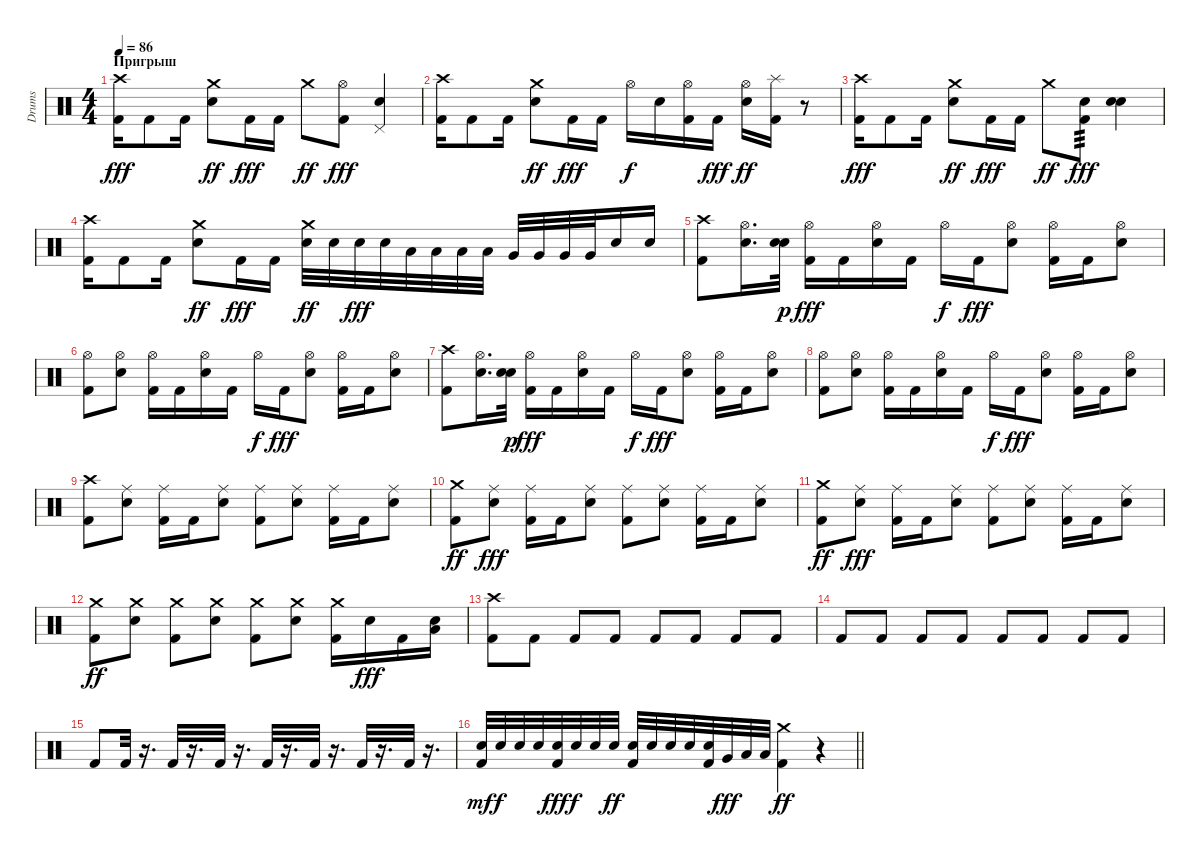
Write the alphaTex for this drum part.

\track ("Drums" "Drums") {instrument percussion}
\staff {score}
\articulation defaults
\ts (4 4)
\section ("" "Пригрыш")
\tempo 86
\clef neutral
\ks c
("Kick (hit) 2" "Crash high (hit)").16{dy fff} "Kick (hit) 2".8 "Kick (hit) 2".16 ("Electric Snare (hit)" "Crash medium (hit)").8{dy ff} "Kick (hit) 2".16{dy fff} "Kick (hit) 2".16 "Crash medium (hit)".8{dy ff} ("Kick (hit) 2" "Hi-Hat (open)").8{dy fff} ("Electric Snare (hit)" "Pedal Hi-Hat (hit)").4 |
("Kick (hit) 2" "Crash high (hit)").16 "Kick (hit) 2".8 "Kick (hit) 2".16 ("Electric Snare (hit)" "Crash medium (hit)").8{dy ff} "Kick (hit) 2".16{dy fff} "Kick (hit) 2".16 "Hi-Hat (open)".16{dy f} "Electric Snare (hit)".16 ("Kick (hit) 2" "Hi-Hat (open)").16 "Kick (hit) 2".16{dy fff} ("Electric Snare (hit)" "Hi-Hat (open)").16{dy ff} ("Kick (hit) 2" "Splash (hit)").16 r.8 |
("Kick (hit) 2" "Crash high (hit)").16{dy fff} "Kick (hit) 2".8 "Kick (hit) 2".16 ("Electric Snare (hit)" "Crash medium (hit)").8{dy ff} "Kick (hit) 2".16{dy fff} "Kick (hit) 2".16 "Crash medium (hit)".8{dy ff} ("Kick (hit) 2" "Electric Snare (hit)").8{tp 3 dy fff} ("Electric Snare (hit)" "Snare (hit) 2").4 |
("Kick (hit) 2" "Crash high (hit)").16 "Kick (hit) 2".8 "Kick (hit) 2".16 ("Electric Snare (hit)" "Crash medium (hit)").8{dy ff} "Kick (hit) 2".16{dy fff} "Kick (hit) 2".16 ("Electric Snare (hit)" "Crash medium (hit)").32{dy ff} "Electric Snare (hit)".32 "Electric Snare (hit)".32{dy fff} "Electric Snare (hit)".32 "Low Tom (hit)".32 "Low Tom (hit)".32 "Low Tom (hit)".32 "Low Tom (hit)".32 "Very Low Tom (hit)".32 "Very Low Tom (hit)".32 "Very Low Tom (hit)".32 "Very Low Tom (hit)".32 "Electric Snare (hit)".16 "Electric Snare (hit)".16 |
("Kick (hit) 2" "Crash high (hit)").8 ("Electric Snare (hit)" "Hi-Hat (open)").16{d} ("Electric Snare (hit)" "Electric Snare (hit)").32{dy p} ("Kick (hit) 2" "Hi-Hat (open)").16{dy fff} "Kick (hit) 2".16 ("Electric Snare (hit)" "Hi-Hat (open)").16 "Kick (hit) 2".16 "Hi-Hat (open)".16{dy f} "Kick (hit) 2".16{dy fff} ("Electric Snare (hit)" "Hi-Hat (open)").8 ("Kick (hit) 2" "Hi-Hat (open)").16 "Kick (hit) 2".16 ("Electric Snare (hit)" "Hi-Hat (open)").8 |
("Kick (hit) 2" "Hi-Hat (open)").8 ("Electric Snare (hit)" "Hi-Hat (open)").8 ("Kick (hit) 2" "Hi-Hat (open)").16 "Kick (hit) 2".16 ("Electric Snare (hit)" "Hi-Hat (open)").16 "Kick (hit) 2".16 "Hi-Hat (open)".16{dy f} "Kick (hit) 2".16{dy fff} ("Electric Snare (hit)" "Hi-Hat (open)").8 ("Kick (hit) 2" "Hi-Hat (open)").16 "Kick (hit) 2".16 ("Electric Snare (hit)" "Hi-Hat (open)").8 |
("Kick (hit) 2" "Crash high (hit)").8 ("Electric Snare (hit)" "Hi-Hat (open)").16{d} ("Electric Snare (hit)" "Electric Snare (hit)").32{dy p} ("Kick (hit) 2" "Hi-Hat (open)").16{dy fff} "Kick (hit) 2".16 ("Electric Snare (hit)" "Hi-Hat (open)").16 "Kick (hit) 2".16 "Hi-Hat (open)".16{dy f} "Kick (hit) 2".16{dy fff} ("Electric Snare (hit)" "Hi-Hat (open)").8 ("Kick (hit) 2" "Hi-Hat (open)").16 "Kick (hit) 2".16 ("Electric Snare (hit)" "Hi-Hat (open)").8 |
("Kick (hit) 2" "Hi-Hat (open)").8 ("Electric Snare (hit)" "Hi-Hat (open)").8 ("Kick (hit) 2" "Hi-Hat (open)").16 "Kick (hit) 2".16 ("Electric Snare (hit)" "Hi-Hat (open)").16 "Kick (hit) 2".16 "Hi-Hat (open)".16{dy f} "Kick (hit) 2".16{dy fff} ("Electric Snare (hit)" "Hi-Hat (open)").8 ("Kick (hit) 2" "Hi-Hat (open)").16 "Kick (hit) 2".16 ("Electric Snare (hit)" "Hi-Hat (open)").8 |
("Kick (hit) 2" "Crash high (hit)").8 ("Electric Snare (hit)" "Ride (middle)").8 ("Kick (hit) 2" "Ride (middle)").16 "Kick (hit) 2".16 ("Electric Snare (hit)" "Ride (middle)").8 ("Kick (hit) 2" "Ride (middle)").8 ("Electric Snare (hit)" "Ride (middle)").8 ("Kick (hit) 2" "Ride (middle)").16 "Kick (hit) 2".16 ("Electric Snare (hit)" "Ride (middle)").8 |
("Kick (hit) 2" "Crash medium (hit)").8{dy ff} ("Electric Snare (hit)" "Ride (middle)").8{dy fff} ("Kick (hit) 2" "Ride (middle)").16 "Kick (hit) 2".16 ("Electric Snare (hit)" "Ride (middle)").8 ("Kick (hit) 2" "Ride (middle)").8 ("Electric Snare (hit)" "Ride (middle)").8 ("Kick (hit) 2" "Ride (middle)").16 "Kick (hit) 2".16 ("Electric Snare (hit)" "Ride (middle)").8 |
("Kick (hit) 2" "Crash medium (hit)").8{dy ff} ("Electric Snare (hit)" "Ride (middle)").8{dy fff} ("Kick (hit) 2" "Ride (middle)").16 "Kick (hit) 2".16 ("Electric Snare (hit)" "Ride (middle)").8 ("Kick (hit) 2" "Ride (middle)").8 ("Electric Snare (hit)" "Ride (middle)").8 ("Kick (hit) 2" "Ride (middle)").16 "Kick (hit) 2".16 ("Electric Snare (hit)" "Ride (middle)").8 |
("Kick (hit) 2" "Crash medium (hit)").8{dy ff} ("Electric Snare (hit)" "Crash medium (hit)").8 ("Kick (hit) 2" "Crash medium (hit)").8 ("Electric Snare (hit)" "Crash medium (hit)").8 ("Kick (hit) 2" "Crash medium (hit)").8 ("Electric Snare (hit)" "Crash medium (hit)").8 ("Kick (hit) 2" "Crash medium (hit)").16 "Electric Snare (hit)".16{dy fff} "Kick (hit) 2".16 ("Electric Snare (hit)" "Low Floor Tom (hit)").16 |
("Kick (hit) 2" "Crash high (hit)").8 "Kick (hit) 2".8 "Kick (hit) 2".8 "Kick (hit) 2".8 "Kick (hit) 2".8 "Kick (hit) 2".8 "Kick (hit) 2".8 "Kick (hit) 2".8 |
"Kick (hit) 2".8 "Kick (hit) 2".8 "Kick (hit) 2".8 "Kick (hit) 2".8 "Kick (hit) 2".8 "Kick (hit) 2".8 "Kick (hit) 2".8 "Kick (hit) 2".8 |
"Kick (hit) 2".8 "Kick (hit) 2".32 r.16{d} "Kick (hit) 2".32 r.16{d} "Kick (hit) 2".32 r.16{d} "Kick (hit) 2".32 r.16{d} "Kick (hit) 2".32 r.16{d} "Kick (hit) 2".32 r.16{d} "Kick (hit) 2".32 r.16{d} |
\barLineRight lightlight
("Kick (hit) 2" "Electric Snare (hit)").32{dy mf} "Electric Snare (hit)".32{dy f} "Electric Snare (hit)".32 "Electric Snare (hit)".32 ("Kick (hit) 2" "Electric Snare (hit)").32{dy fff} "Electric Snare (hit)".32{dy f} "Electric Snare (hit)".32 "Electric Snare (hit)".32{dy ff} ("Kick (hit) 2" "Electric Snare (hit)").32 "Electric Snare (hit)".32 "Electric Snare (hit)".32 "Electric Snare (hit)".32 ("Kick (hit) 2" "Electric Snare (hit)").32 "Very Low Tom (hit)".32{dy fff} "Low Floor Tom (hit)".32 "Low Floor Tom (hit)".32 ("Kick (hit) 2" "Crash medium (hit)").4{dy ff} r.4
